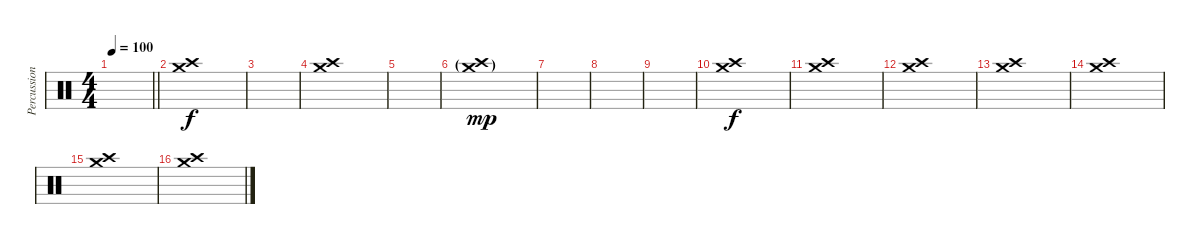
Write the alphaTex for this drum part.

\track ("Percussion" "Percussion") {instrument percussion}
\staff {score}
\articulation defaults
\ts (4 4)
\tempo 100
\clef neutral
\barLineRight lightlight
\ks c
|
("Crash medium (hit)" "Crash high (hit)").1 |
|
("Crash high (hit)" "Crash medium (hit)").1 |
|
("Crash medium (hit)"{g} "Crash high (hit)"{g}).1{dy mp} |
|
|
|
("Crash high (hit)" "Crash medium (hit)").1{dy f} |
("Crash high (hit)" "Crash medium (hit)").1 |
("Crash high (hit)" "Crash medium (hit)").1 |
("Crash high (hit)" "Crash medium (hit)").1 |
("Crash high (hit)" "Crash medium (hit)").1 |
("Crash high (hit)" "Crash medium (hit)").1 |
("Crash high (hit)" "Crash medium (hit)").1
